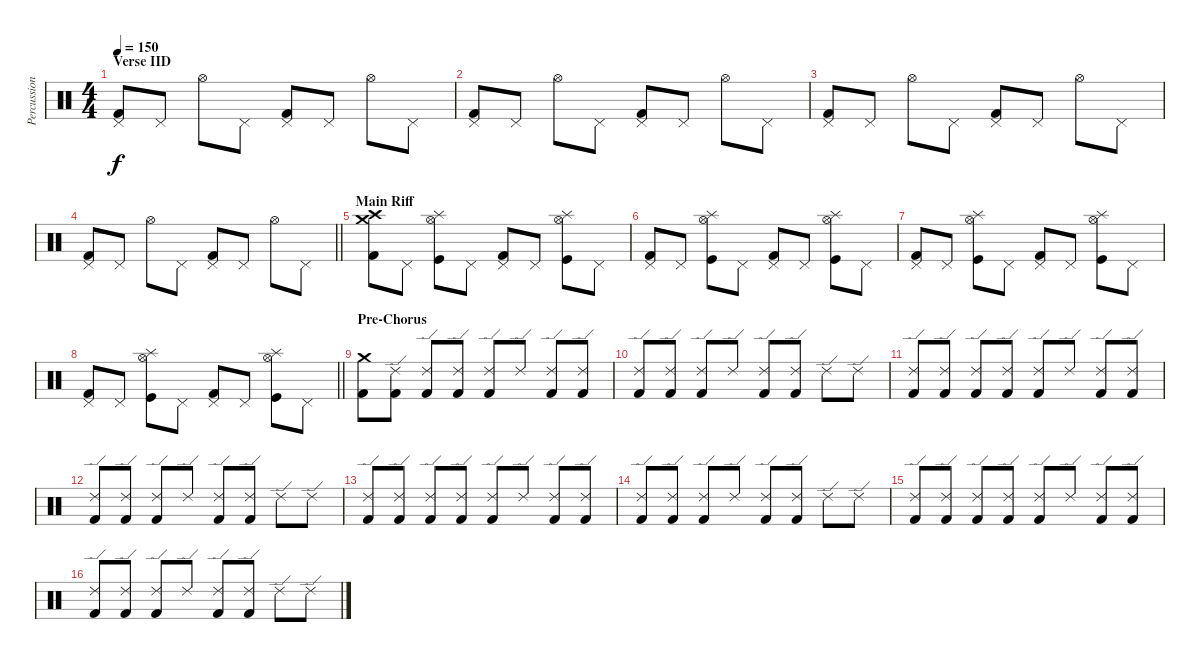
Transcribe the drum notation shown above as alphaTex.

\track ("Percussion" "Percussion") {instrument percussion}
\staff {score}
\articulation defaults
\ts (4 4)
\section ("" "Verse IID")
\tempo 150
\clef neutral
\ks c
("Pedal Hi-Hat (hit)" "Kick (hit) 2").8{dy f} "Pedal Hi-Hat (hit)".8 "Hi-Hat (open)".8 "Pedal Hi-Hat (hit)".8 ("Pedal Hi-Hat (hit)" "Kick (hit) 2").8 "Pedal Hi-Hat (hit)".8 "Hi-Hat (open)".8 "Pedal Hi-Hat (hit)".8 |
("Pedal Hi-Hat (hit)" "Kick (hit) 2").8 "Pedal Hi-Hat (hit)".8 "Hi-Hat (open)".8 "Pedal Hi-Hat (hit)".8 ("Pedal Hi-Hat (hit)" "Kick (hit) 2").8 "Pedal Hi-Hat (hit)".8 "Hi-Hat (open)".8 "Pedal Hi-Hat (hit)".8 |
("Pedal Hi-Hat (hit)" "Kick (hit) 2").8 "Pedal Hi-Hat (hit)".8 "Hi-Hat (open)".8 "Pedal Hi-Hat (hit)".8 ("Pedal Hi-Hat (hit)" "Kick (hit) 2").8 "Pedal Hi-Hat (hit)".8 "Hi-Hat (open)".8 "Pedal Hi-Hat (hit)".8 |
\barLineRight lightlight
("Pedal Hi-Hat (hit)" "Kick (hit) 2").8 "Pedal Hi-Hat (hit)".8 "Hi-Hat (open)".8 "Pedal Hi-Hat (hit)".8 ("Pedal Hi-Hat (hit)" "Kick (hit) 2").8 "Pedal Hi-Hat (hit)".8 "Hi-Hat (open)".8 "Pedal Hi-Hat (hit)".8 |
\section ("" "Main Riff")
("Crash high (hit)" "Crash medium (hit)" "Kick (hit) 2").8 "Pedal Hi-Hat (hit)".8 ("Hi-Hat (open)" "Splash (hit)" "Kick (hit)").8 "Pedal Hi-Hat (hit)".8 ("Pedal Hi-Hat (hit)" "Kick (hit) 2").8 "Pedal Hi-Hat (hit)".8 ("Hi-Hat (open)" "Splash (hit)" "Kick (hit)").8 "Pedal Hi-Hat (hit)".8 |
("Pedal Hi-Hat (hit)" "Kick (hit) 2").8 "Pedal Hi-Hat (hit)".8 ("Hi-Hat (open)" "Splash (hit)" "Kick (hit)").8 "Pedal Hi-Hat (hit)".8 ("Pedal Hi-Hat (hit)" "Kick (hit) 2").8 "Pedal Hi-Hat (hit)".8 ("Hi-Hat (open)" "Splash (hit)" "Kick (hit)").8 "Pedal Hi-Hat (hit)".8 |
("Pedal Hi-Hat (hit)" "Kick (hit) 2").8 "Pedal Hi-Hat (hit)".8 ("Hi-Hat (open)" "Splash (hit)" "Kick (hit)").8 "Pedal Hi-Hat (hit)".8 ("Pedal Hi-Hat (hit)" "Kick (hit) 2").8 "Pedal Hi-Hat (hit)".8 ("Hi-Hat (open)" "Splash (hit)" "Kick (hit)").8 "Pedal Hi-Hat (hit)".8 |
\barLineRight lightlight
("Pedal Hi-Hat (hit)" "Kick (hit) 2").8 "Pedal Hi-Hat (hit)".8 ("Hi-Hat (open)" "Splash (hit)" "Kick (hit)").8 "Pedal Hi-Hat (hit)".8 ("Pedal Hi-Hat (hit)" "Kick (hit) 2").8 "Pedal Hi-Hat (hit)".8 ("Hi-Hat (open)" "Splash (hit)" "Kick (hit)").8 "Pedal Hi-Hat (hit)".8 |
\section ("" "Pre-Chorus")
("Crash medium (hit)" "Kick (hit) 2").8 ("Ride (edge) 2" "Kick (hit) 2").8 ("Ride (edge) 2" "Kick (hit) 2").8 ("Ride (edge) 2" "Kick (hit) 2").8 ("Ride (edge) 2" "Kick (hit) 2").8 "Ride (edge) 2".8 ("Ride (edge) 2" "Kick (hit) 2").8 ("Ride (edge) 2" "Kick (hit) 2").8 |
("Ride (edge) 2" "Kick (hit) 2").8 ("Ride (edge) 2" "Kick (hit) 2").8 ("Ride (edge) 2" "Kick (hit) 2").8 "Ride (edge) 2".8 ("Ride (edge) 2" "Kick (hit) 2").8 ("Ride (edge) 2" "Kick (hit) 2").8 "Ride (edge) 2".8 "Ride (edge) 2".8 |
("Ride (edge) 2" "Kick (hit) 2").8 ("Ride (edge) 2" "Kick (hit) 2").8 ("Ride (edge) 2" "Kick (hit) 2").8 ("Ride (edge) 2" "Kick (hit) 2").8 ("Ride (edge) 2" "Kick (hit) 2").8 "Ride (edge) 2".8 ("Ride (edge) 2" "Kick (hit) 2").8 ("Ride (edge) 2" "Kick (hit) 2").8 |
("Ride (edge) 2" "Kick (hit) 2").8 ("Ride (edge) 2" "Kick (hit) 2").8 ("Ride (edge) 2" "Kick (hit) 2").8 "Ride (edge) 2".8 ("Ride (edge) 2" "Kick (hit) 2").8 ("Ride (edge) 2" "Kick (hit) 2").8 "Ride (edge) 2".8 "Ride (edge) 2".8 |
("Ride (edge) 2" "Kick (hit) 2").8 ("Ride (edge) 2" "Kick (hit) 2").8 ("Ride (edge) 2" "Kick (hit) 2").8 ("Ride (edge) 2" "Kick (hit) 2").8 ("Ride (edge) 2" "Kick (hit) 2").8 "Ride (edge) 2".8 ("Ride (edge) 2" "Kick (hit) 2").8 ("Ride (edge) 2" "Kick (hit) 2").8 |
("Ride (edge) 2" "Kick (hit) 2").8 ("Ride (edge) 2" "Kick (hit) 2").8 ("Ride (edge) 2" "Kick (hit) 2").8 "Ride (edge) 2".8 ("Ride (edge) 2" "Kick (hit) 2").8 ("Ride (edge) 2" "Kick (hit) 2").8 "Ride (edge) 2".8 "Ride (edge) 2".8 |
("Ride (edge) 2" "Kick (hit) 2").8 ("Ride (edge) 2" "Kick (hit) 2").8 ("Ride (edge) 2" "Kick (hit) 2").8 ("Ride (edge) 2" "Kick (hit) 2").8 ("Ride (edge) 2" "Kick (hit) 2").8 "Ride (edge) 2".8 ("Ride (edge) 2" "Kick (hit) 2").8 ("Ride (edge) 2" "Kick (hit) 2").8 |
("Ride (edge) 2" "Kick (hit) 2").8 ("Ride (edge) 2" "Kick (hit) 2").8 ("Ride (edge) 2" "Kick (hit) 2").8 "Ride (edge) 2".8 ("Ride (edge) 2" "Kick (hit) 2").8 ("Ride (edge) 2" "Kick (hit) 2").8 "Ride (edge) 2".8 "Ride (edge) 2".8
